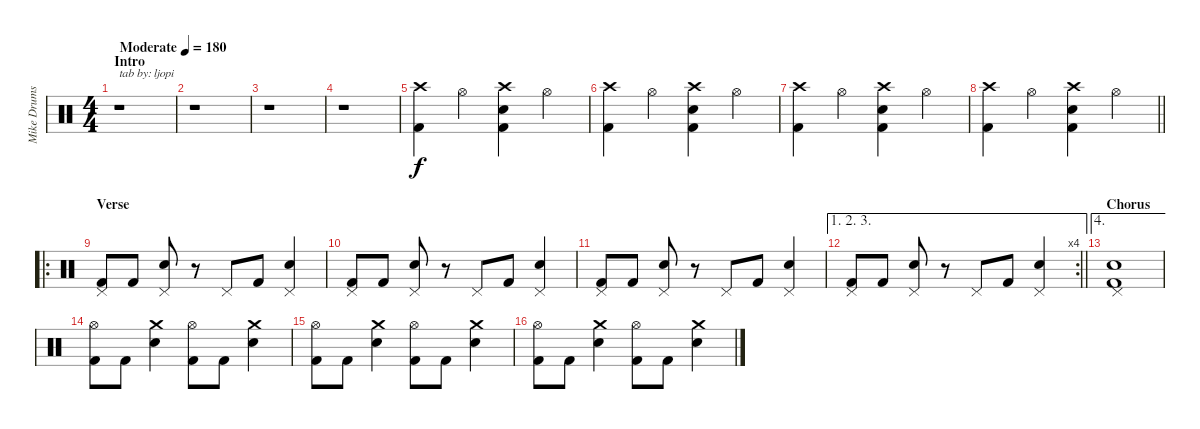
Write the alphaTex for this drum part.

\track ("Mike Drums" "Mike Drums") {instrument percussion}
\staff {score}
\articulation defaults
\ts (4 4)
\section ("" "Intro")
\tempo (180 "Moderate")
\clef neutral
\ks c
r.1{txt "tab by: ljopi" dy f} |
r.1 |
r.1 |
r.1 |
("Crash high (hit)" "Kick (hit) 2").4 "Hi-Hat (open)".4 ("Crash high (hit)" "Snare (hit) 2" "Kick (hit) 2").4 "Hi-Hat (open)".4 |
("Crash high (hit)" "Kick (hit) 2").4 "Hi-Hat (open)".4 ("Crash high (hit)" "Snare (hit) 2" "Kick (hit) 2").4 "Hi-Hat (open)".4 |
("Crash high (hit)" "Kick (hit) 2").4 "Hi-Hat (open)".4 ("Crash high (hit)" "Snare (hit) 2" "Kick (hit) 2").4 "Hi-Hat (open)".4 |
\barLineRight lightlight
("Crash high (hit)" "Kick (hit) 2").4 "Hi-Hat (open)".4 ("Crash high (hit)" "Snare (hit) 2" "Kick (hit) 2").4 "Hi-Hat (open)".4 |
\ro
\section ("" "Verse")
("Pedal Hi-Hat (hit)" "Kick (hit) 2").8 "Kick (hit) 2".8 ("Pedal Hi-Hat (hit)" "Snare (hit) 2").8 r.8 "Pedal Hi-Hat (hit)".8 "Kick (hit) 2".8 ("Pedal Hi-Hat (hit)" "Snare (hit) 2").4 |
("Pedal Hi-Hat (hit)" "Kick (hit) 2").8 "Kick (hit) 2".8 ("Pedal Hi-Hat (hit)" "Snare (hit) 2").8 r.8 "Pedal Hi-Hat (hit)".8 "Kick (hit) 2".8 ("Pedal Hi-Hat (hit)" "Snare (hit) 2").4 |
("Pedal Hi-Hat (hit)" "Kick (hit) 2").8 "Kick (hit) 2".8 ("Pedal Hi-Hat (hit)" "Snare (hit) 2").8 r.8 "Pedal Hi-Hat (hit)".8 "Kick (hit) 2".8 ("Pedal Hi-Hat (hit)" "Snare (hit) 2").4 |
\ae (1 2 3)
\rc 4
\barLineRight lightlight
("Pedal Hi-Hat (hit)" "Kick (hit) 2").8 "Kick (hit) 2".8 ("Pedal Hi-Hat (hit)" "Snare (hit) 2").8 r.8 "Pedal Hi-Hat (hit)".8 "Kick (hit) 2".8 ("Pedal Hi-Hat (hit)" "Snare (hit) 2").4 |
\ae 4
\section ("" "Chorus")
("Pedal Hi-Hat (hit)" "Snare (hit) 2" "Kick (hit) 2").1 |
("Hi-Hat (open)" "Kick (hit) 2").8 "Kick (hit) 2".8 ("Crash medium (hit)" "Snare (hit) 2").4 ("Hi-Hat (open)" "Kick (hit) 2").8 "Kick (hit) 2".8 ("Crash medium (hit)" "Snare (hit) 2").4 |
("Hi-Hat (open)" "Kick (hit) 2").8 "Kick (hit) 2".8 ("Crash medium (hit)" "Snare (hit) 2").4 ("Hi-Hat (open)" "Kick (hit) 2").8 "Kick (hit) 2".8 ("Crash medium (hit)" "Snare (hit) 2").4 |
("Hi-Hat (open)" "Kick (hit) 2").8 "Kick (hit) 2".8 ("Crash medium (hit)" "Snare (hit) 2").4 ("Hi-Hat (open)" "Kick (hit) 2").8 "Kick (hit) 2".8 ("Crash medium (hit)" "Snare (hit) 2").4
